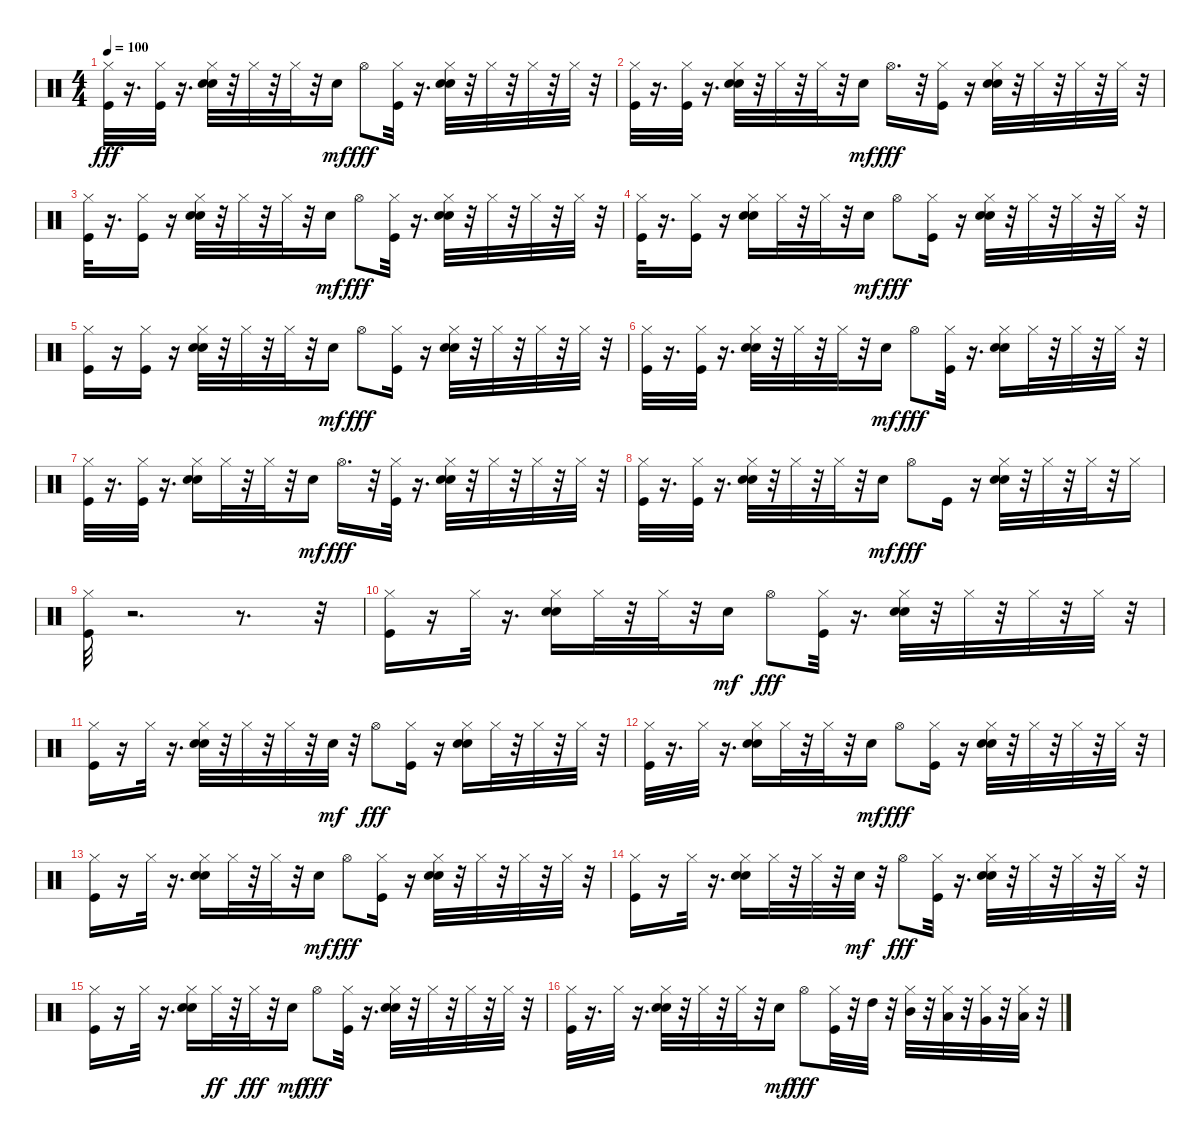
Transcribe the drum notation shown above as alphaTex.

\track "" {instrument percussion}
\staff {score}
\articulation defaults
\ts (4 4)
\tempo 100
\clef neutral
\ks c
("Hi-Hat (closed)" "Kick (hit)").32{dy fff} r.16{d} ("Hi-Hat (closed)" "Kick (hit)").32 r.16{d} ("Hi-Hat (closed)" "Hand Clap (hit)" "Snare (hit) 2").32 r.32 "Hi-Hat (closed)".32 r.32 "Hi-Hat (closed)".32 r.32 "Electric Snare (hit)".16{dy mf} "Hi-Hat (open)".8{dy fff} ("Hi-Hat (closed)" "Kick (hit)").32 r.16{d} ("Hi-Hat (closed)" "Hand Clap (hit)" "Snare (hit) 2").32 r.32 "Hi-Hat (closed)".32 r.32 "Hi-Hat (closed)".32 r.32 "Hi-Hat (closed)".32 r.32 |
("Hi-Hat (closed)" "Kick (hit)").32 r.16{d} ("Hi-Hat (closed)" "Kick (hit)").32 r.16{d} ("Hi-Hat (closed)" "Hand Clap (hit)" "Snare (hit) 2").32 r.32 "Hi-Hat (closed)".32 r.32 "Hi-Hat (closed)".32 r.32 "Electric Snare (hit)".16{dy mf} "Hi-Hat (open)".16{d dy fff} r.32 ("Hi-Hat (closed)" "Kick (hit)").16 r.16 ("Hi-Hat (closed)" "Hand Clap (hit)" "Snare (hit) 2").32 r.32 "Hi-Hat (closed)".32 r.32 "Hi-Hat (closed)".32 r.32 "Hi-Hat (closed)".32 r.32 |
("Hi-Hat (closed)" "Kick (hit)").32 r.16{d} ("Hi-Hat (closed)" "Kick (hit)").16 r.16 ("Hi-Hat (closed)" "Hand Clap (hit)" "Snare (hit) 2").32 r.32 "Hi-Hat (closed)".32 r.32 "Hi-Hat (closed)".32 r.32 "Electric Snare (hit)".16{dy mf} "Hi-Hat (open)".8{dy fff} ("Hi-Hat (closed)" "Kick (hit)").32 r.16{d} ("Hi-Hat (closed)" "Hand Clap (hit)" "Snare (hit) 2").32 r.32 "Hi-Hat (closed)".32 r.32 "Hi-Hat (closed)".32 r.32 "Hi-Hat (closed)".32 r.32 |
("Hi-Hat (closed)" "Kick (hit)").32 r.16{d} ("Hi-Hat (closed)" "Kick (hit)").16 r.16 ("Hi-Hat (closed)" "Snare (hit) 2" "Hand Clap (hit)").16 "Hi-Hat (closed)".32 r.32 "Hi-Hat (closed)".32 r.32 "Electric Snare (hit)".16{dy mf} "Hi-Hat (open)".8{dy fff} ("Hi-Hat (closed)" "Kick (hit)").16 r.16 ("Hi-Hat (closed)" "Hand Clap (hit)" "Snare (hit) 2").32 r.32 "Hi-Hat (closed)".32 r.32 "Hi-Hat (closed)".32 r.32 "Hi-Hat (closed)".32 r.32 |
("Hi-Hat (closed)" "Kick (hit)").16 r.16 ("Hi-Hat (closed)" "Kick (hit)").16 r.16 ("Hi-Hat (closed)" "Snare (hit) 2" "Hand Clap (hit)").32 r.32 "Hi-Hat (closed)".32 r.32 "Hi-Hat (closed)".32 r.32 "Electric Snare (hit)".16{dy mf} "Hi-Hat (open)".8{dy fff} ("Hi-Hat (closed)" "Kick (hit)").16 r.16 ("Hi-Hat (closed)" "Snare (hit) 2" "Hand Clap (hit)").32 r.32 "Hi-Hat (closed)".32 r.32 "Hi-Hat (closed)".32 r.32 "Hi-Hat (closed)".32 r.32 |
("Hi-Hat (closed)" "Kick (hit)").32 r.16{d} ("Hi-Hat (closed)" "Kick (hit)").32 r.16{d} ("Hi-Hat (closed)" "Hand Clap (hit)" "Snare (hit) 2").32 r.32 "Hi-Hat (closed)".32 r.32 "Hi-Hat (closed)".32 r.32 "Electric Snare (hit)".16{dy mf} "Hi-Hat (open)".8{dy fff} ("Hi-Hat (closed)" "Kick (hit)").32 r.16{d} ("Hi-Hat (closed)" "Hand Clap (hit)" "Snare (hit) 2").16 "Hi-Hat (closed)".32 r.32 "Hi-Hat (closed)".32 r.32 "Hi-Hat (closed)".32 r.32 |
("Hi-Hat (closed)" "Kick (hit)").32 r.16{d} ("Hi-Hat (closed)" "Kick (hit)").32 r.16{d} ("Hi-Hat (closed)" "Hand Clap (hit)" "Snare (hit) 2").16 "Hi-Hat (closed)".32 r.32 "Hi-Hat (closed)".32 r.32 "Electric Snare (hit)".16{dy mf} "Hi-Hat (open)".16{d dy fff} r.32 ("Hi-Hat (closed)" "Kick (hit)").32 r.16{d} ("Hi-Hat (closed)" "Hand Clap (hit)" "Snare (hit) 2").32 r.32 "Hi-Hat (closed)".32 r.32 "Hi-Hat (closed)".32 r.32 "Hi-Hat (closed)".32 r.32 |
("Hi-Hat (closed)" "Kick (hit)").32 r.16{d} ("Hi-Hat (closed)" "Kick (hit)").32 r.16{d} ("Hi-Hat (closed)" "Hand Clap (hit)" "Snare (hit) 2").32 r.32 "Hi-Hat (closed)".32 r.32 "Hi-Hat (closed)".32 r.32 "Electric Snare (hit)".16{dy mf} "Hi-Hat (open)".8{dy fff} "Kick (hit)".16 r.16 ("Hi-Hat (closed)" "Hand Clap (hit)" "Snare (hit) 2").32 r.32 "Hi-Hat (closed)".32 r.32 "Hi-Hat (closed)".32 r.32 "Hi-Hat (closed)".16 |
("Hi-Hat (closed)" "Kick (hit)").32 r.2{d} r.8{d} r.32 |
("Hi-Hat (closed)" "Kick (hit)").16 r.16 "Hi-Hat (closed)".32 r.16{d} ("Hi-Hat (closed)" "Hand Clap (hit)" "Snare (hit) 2").16 "Hi-Hat (closed)".32 r.32 "Hi-Hat (closed)".32 r.32 "Electric Snare (hit)".16{dy mf} "Hi-Hat (open)".8{dy fff} ("Hi-Hat (closed)" "Kick (hit)").32 r.16{d} ("Hi-Hat (closed)" "Hand Clap (hit)" "Snare (hit) 2").32 r.32 "Hi-Hat (closed)".32 r.32 "Hi-Hat (closed)".32 r.32 "Hi-Hat (closed)".32 r.32 |
("Hi-Hat (closed)" "Kick (hit)").16 r.16 "Hi-Hat (closed)".32 r.16{d} ("Hi-Hat (closed)" "Hand Clap (hit)" "Snare (hit) 2").32 r.32 "Hi-Hat (closed)".32 r.32 "Hi-Hat (closed)".32 r.32 "Electric Snare (hit)".32{dy mf} r.32 "Hi-Hat (open)".8{dy fff} ("Hi-Hat (closed)" "Kick (hit)").16 r.16 ("Hi-Hat (closed)" "Hand Clap (hit)" "Snare (hit) 2").16 "Hi-Hat (closed)".32 r.32 "Hi-Hat (closed)".32 r.32 "Hi-Hat (closed)".32 r.32 |
("Hi-Hat (closed)" "Kick (hit)").32 r.16{d} "Hi-Hat (closed)".32 r.16{d} ("Hi-Hat (closed)" "Hand Clap (hit)" "Snare (hit) 2").16 "Hi-Hat (closed)".32 r.32 "Hi-Hat (closed)".32 r.32 "Electric Snare (hit)".16{dy mf} "Hi-Hat (open)".8{dy fff} ("Hi-Hat (closed)" "Kick (hit)").16 r.16 ("Hi-Hat (closed)" "Hand Clap (hit)" "Snare (hit) 2").32 r.32 "Hi-Hat (closed)".32 r.32 "Hi-Hat (closed)".32 r.32 "Hi-Hat (closed)".32 r.32 |
("Hi-Hat (closed)" "Kick (hit)").16 r.16 "Hi-Hat (closed)".32 r.16{d} ("Hi-Hat (closed)" "Hand Clap (hit)" "Snare (hit) 2").16 "Hi-Hat (closed)".32 r.32 "Hi-Hat (closed)".32 r.32 "Electric Snare (hit)".16{dy mf} "Hi-Hat (open)".8{dy fff} ("Hi-Hat (closed)" "Kick (hit)").16 r.16 ("Hi-Hat (closed)" "Hand Clap (hit)" "Snare (hit) 2").32 r.32 "Hi-Hat (closed)".32 r.32 "Hi-Hat (closed)".32 r.32 "Hi-Hat (closed)".32 r.32 |
("Hi-Hat (closed)" "Kick (hit)").16 r.16 "Hi-Hat (closed)".32 r.16{d} ("Hi-Hat (closed)" "Hand Clap (hit)" "Snare (hit) 2").16 "Hi-Hat (closed)".32 r.32 "Hi-Hat (closed)".32 r.32 "Electric Snare (hit)".32{dy mf} r.32 "Hi-Hat (open)".8{dy fff} ("Hi-Hat (closed)" "Kick (hit)").32 r.16{d} ("Hi-Hat (closed)" "Hand Clap (hit)" "Snare (hit) 2").32 r.32 "Hi-Hat (closed)".32 r.32 "Hi-Hat (closed)".32 r.32 "Hi-Hat (closed)".32 r.32 |
("Hi-Hat (closed)" "Kick (hit)").16 r.16 "Hi-Hat (closed)".32 r.16{d} ("Hi-Hat (closed)" "Hand Clap (hit)" "Snare (hit) 2").16 "Hi-Hat (closed)".32{dy ff} r.32 "Hi-Hat (closed)".32{dy fff} r.32 "Electric Snare (hit)".16{dy mf} "Hi-Hat (open)".8{dy fff} ("Hi-Hat (closed)" "Kick (hit)").32 r.16{d} ("Hi-Hat (closed)" "Hand Clap (hit)" "Snare (hit) 2").32 r.32 "Hi-Hat (closed)".32 r.32 "Hi-Hat (closed)".32 r.32 "Hi-Hat (closed)".32 r.32 |
("Hi-Hat (closed)" "Kick (hit)").32 r.16{d} "Hi-Hat (closed)".32 r.16{d} ("Hi-Hat (closed)" "Hand Clap (hit)" "Snare (hit) 2").32 r.32 "Hi-Hat (closed)".32 r.32 "Hi-Hat (closed)".32 r.32 "Electric Snare (hit)".16{dy mf} "Hi-Hat (open)".8{dy fff} ("Hi-Hat (closed)" "Kick (hit)").32 r.32 "High Tom (hit)".32 r.32 ("Hi-Hat (closed)" "Mid Tom (hit)").32 r.32 ("Hi-Hat (closed)" "Low Tom (hit)").32 r.32 ("Hi-Hat (closed)" "Very Low Tom (hit)").32 r.32 ("Hi-Hat (closed)" "Low Floor Tom (hit)").32 r.32
